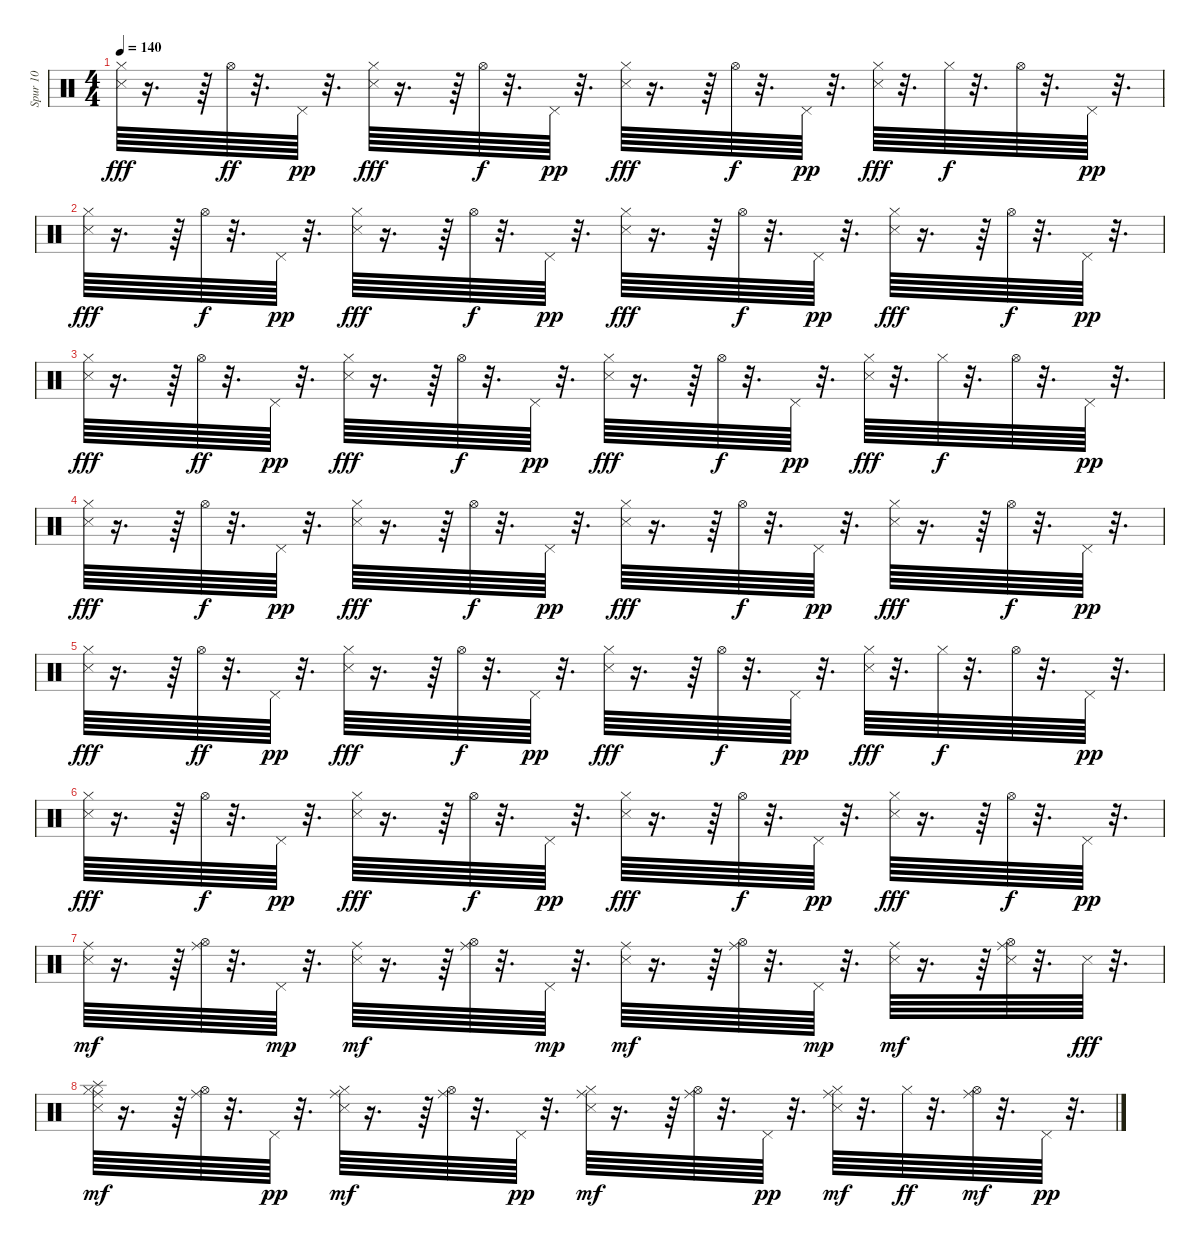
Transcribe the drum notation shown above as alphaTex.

\track ("Spur 10" "Spur 10") {instrument percussion}
\staff {score}
\articulation defaults
\ts (4 4)
\tempo 140
\clef neutral
\ks c
("Metronome (hit)" "Hi-Hat (closed)").64{dy fff} r.16{d} r.64 "Hi-Hat (open)".64{dy ff} r.32{d} "Pedal Hi-Hat (hit)".64{dy pp} r.32{d} ("Metronome (hit)" "Hi-Hat (closed)").64{dy fff} r.16{d} r.64 "Hi-Hat (open)".64{dy f} r.32{d} "Pedal Hi-Hat (hit)".64{dy pp} r.32{d} ("Metronome (hit)" "Hi-Hat (closed)").64{dy fff} r.16{d} r.64 "Hi-Hat (open)".64{dy f} r.32{d} "Pedal Hi-Hat (hit)".64{dy pp} r.32{d} ("Metronome (hit)" "Hi-Hat (closed)").64{dy fff} r.32{d} "Hi-Hat (closed)".64{dy f} r.32{d} "Hi-Hat (open)".64 r.32{d} "Pedal Hi-Hat (hit)".64{dy pp} r.32{d} |
("Metronome (hit)" "Hi-Hat (closed)").64{dy fff} r.16{d} r.64 "Hi-Hat (open)".64{dy f} r.32{d} "Pedal Hi-Hat (hit)".64{dy pp} r.32{d} ("Metronome (hit)" "Hi-Hat (closed)").64{dy fff} r.16{d} r.64 "Hi-Hat (open)".64{dy f} r.32{d} "Pedal Hi-Hat (hit)".64{dy pp} r.32{d} ("Metronome (hit)" "Hi-Hat (closed)").64{dy fff} r.16{d} r.64 "Hi-Hat (open)".64{dy f} r.32{d} "Pedal Hi-Hat (hit)".64{dy pp} r.32{d} ("Metronome (hit)" "Hi-Hat (closed)").64{dy fff} r.16{d} r.64 "Hi-Hat (open)".64{dy f} r.32{d} "Pedal Hi-Hat (hit)".64{dy pp} r.32{d} |
("Metronome (hit)" "Hi-Hat (closed)").64{dy fff} r.16{d} r.64 "Hi-Hat (open)".64{dy ff} r.32{d} "Pedal Hi-Hat (hit)".64{dy pp} r.32{d} ("Metronome (hit)" "Hi-Hat (closed)").64{dy fff} r.16{d} r.64 "Hi-Hat (open)".64{dy f} r.32{d} "Pedal Hi-Hat (hit)".64{dy pp} r.32{d} ("Metronome (hit)" "Hi-Hat (closed)").64{dy fff} r.16{d} r.64 "Hi-Hat (open)".64{dy f} r.32{d} "Pedal Hi-Hat (hit)".64{dy pp} r.32{d} ("Metronome (hit)" "Hi-Hat (closed)").64{dy fff} r.32{d} "Hi-Hat (closed)".64{dy f} r.32{d} "Hi-Hat (open)".64 r.32{d} "Pedal Hi-Hat (hit)".64{dy pp} r.32{d} |
("Metronome (hit)" "Hi-Hat (closed)").64{dy fff} r.16{d} r.64 "Hi-Hat (open)".64{dy f} r.32{d} "Pedal Hi-Hat (hit)".64{dy pp} r.32{d} ("Metronome (hit)" "Hi-Hat (closed)").64{dy fff} r.16{d} r.64 "Hi-Hat (open)".64{dy f} r.32{d} "Pedal Hi-Hat (hit)".64{dy pp} r.32{d} ("Metronome (hit)" "Hi-Hat (closed)").64{dy fff} r.16{d} r.64 "Hi-Hat (open)".64{dy f} r.32{d} "Pedal Hi-Hat (hit)".64{dy pp} r.32{d} ("Metronome (hit)" "Hi-Hat (closed)").64{dy fff} r.16{d} r.64 "Hi-Hat (open)".64{dy f} r.32{d} "Pedal Hi-Hat (hit)".64{dy pp} r.32{d} |
("Metronome (hit)" "Hi-Hat (closed)").64{dy fff} r.16{d} r.64 "Hi-Hat (open)".64{dy ff} r.32{d} "Pedal Hi-Hat (hit)".64{dy pp} r.32{d} ("Metronome (hit)" "Hi-Hat (closed)").64{dy fff} r.16{d} r.64 "Hi-Hat (open)".64{dy f} r.32{d} "Pedal Hi-Hat (hit)".64{dy pp} r.32{d} ("Metronome (hit)" "Hi-Hat (closed)").64{dy fff} r.16{d} r.64 "Hi-Hat (open)".64{dy f} r.32{d} "Pedal Hi-Hat (hit)".64{dy pp} r.32{d} ("Metronome (hit)" "Hi-Hat (closed)").64{dy fff} r.32{d} "Hi-Hat (closed)".64{dy f} r.32{d} "Hi-Hat (open)".64 r.32{d} "Pedal Hi-Hat (hit)".64{dy pp} r.32{d} |
("Metronome (hit)" "Hi-Hat (closed)").64{dy fff} r.16{d} r.64 "Hi-Hat (open)".64{dy f} r.32{d} "Pedal Hi-Hat (hit)".64{dy pp} r.32{d} ("Metronome (hit)" "Hi-Hat (closed)").64{dy fff} r.16{d} r.64 "Hi-Hat (open)".64{dy f} r.32{d} "Pedal Hi-Hat (hit)".64{dy pp} r.32{d} ("Metronome (hit)" "Hi-Hat (closed)").64{dy fff} r.16{d} r.64 "Hi-Hat (open)".64{dy f} r.32{d} "Pedal Hi-Hat (hit)".64{dy pp} r.32{d} ("Metronome (hit)" "Hi-Hat (closed)").64{dy fff} r.16{d} r.64 "Hi-Hat (open)".64{dy f} r.32{d} "Pedal Hi-Hat (hit)".64{dy pp} r.32{d} |
("Metronome (hit)" "Ride (middle)").64{dy mf} r.16{d} r.64 ("Hi-Hat (open)" "Ride (middle)").64 r.32{d} "Pedal Hi-Hat (hit)".64{dy mp} r.32{d} ("Metronome (hit)" "Ride (middle)").64{dy mf} r.16{d} r.64 ("Hi-Hat (open)" "Ride (middle)").64 r.32{d} "Pedal Hi-Hat (hit)".64{dy mp} r.32{d} ("Metronome (hit)" "Ride (middle)").64{dy mf} r.16{d} r.64 ("Hi-Hat (open)" "Ride (middle)").64 r.32{d} "Pedal Hi-Hat (hit)".64{dy mp} r.32{d} ("Metronome (hit)" "Ride (middle)").64{dy mf} r.16{d} r.64 ("Metronome (hit)" "Hi-Hat (open)" "Ride (middle)").64 r.32{d} "Metronome (hit)".64{dy fff} r.32{d} |
("Splash (hit)" "Metronome (hit)" "Hi-Hat (closed)" "Ride (middle)").64{dy mf} r.16{d} r.64 ("Hi-Hat (open)" "Ride (middle)").64 r.32{d} "Pedal Hi-Hat (hit)".64{dy pp} r.32{d} ("Metronome (hit)" "Hi-Hat (closed)" "Ride (middle)").64{dy mf} r.16{d} r.64 ("Hi-Hat (open)" "Ride (middle)").64 r.32{d} "Pedal Hi-Hat (hit)".64{dy pp} r.32{d} ("Metronome (hit)" "Hi-Hat (closed)" "Ride (middle)").64{dy mf} r.16{d} r.64 ("Hi-Hat (open)" "Ride (middle)").64 r.32{d} "Pedal Hi-Hat (hit)".64{dy pp} r.32{d} ("Metronome (hit)" "Hi-Hat (closed)" "Ride (middle)").64{dy mf} r.32{d} "Hi-Hat (closed)".64{dy ff} r.32{d} ("Hi-Hat (open)" "Ride (middle)").64{dy mf} r.32{d} "Pedal Hi-Hat (hit)".64{dy pp} r.32{d}
